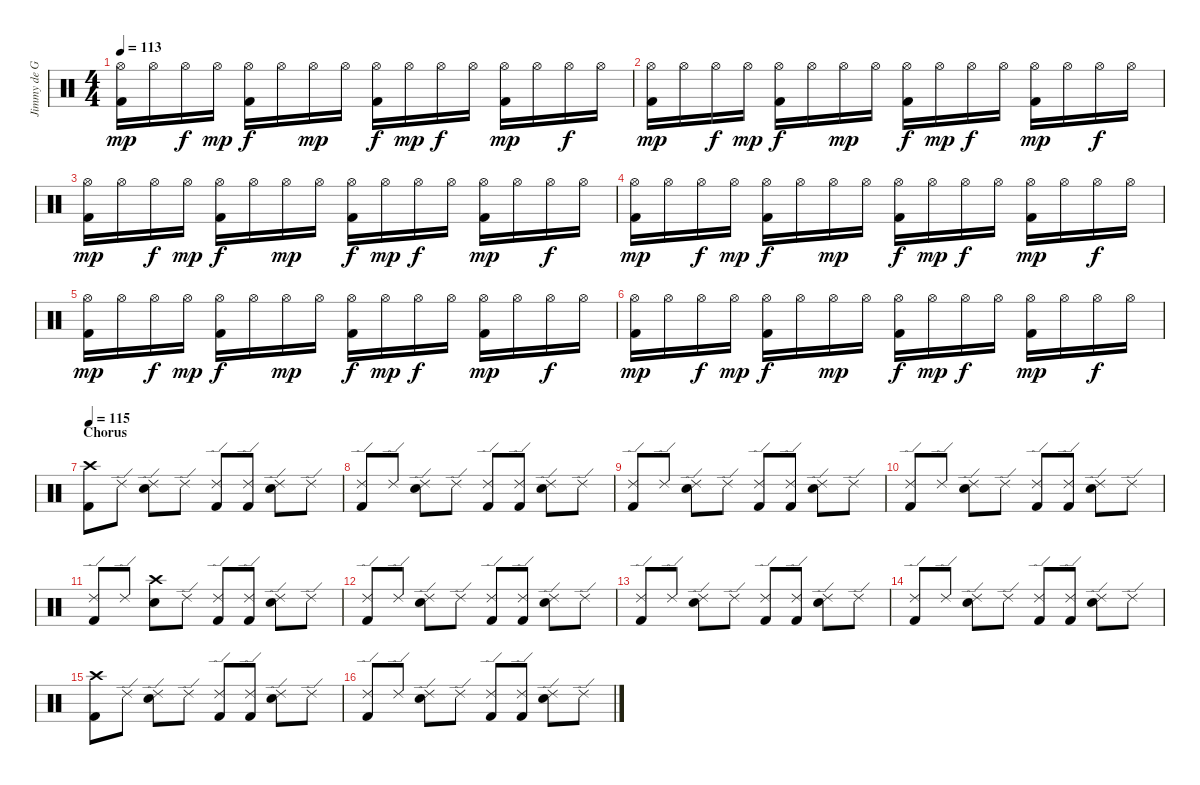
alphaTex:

\track ("Jimmy de Grasso" "Jimmy de G") {instrument percussion}
\staff {score}
\articulation defaults
\ts (4 4)
\tempo 113
\clef neutral
\ks c
("Hi-Hat (open)" "Kick (hit) 2").16{dy mp} "Hi-Hat (open)".16 "Hi-Hat (open)".16{dy f} "Hi-Hat (open)".16{dy mp} ("Hi-Hat (open)" "Kick (hit) 2").16{dy f} "Hi-Hat (open)".16 "Hi-Hat (open)".16{dy mp} "Hi-Hat (open)".16 ("Hi-Hat (open)" "Kick (hit) 2").16{dy f} "Hi-Hat (open)".16{dy mp} "Hi-Hat (open)".16{dy f} "Hi-Hat (open)".16 ("Hi-Hat (open)" "Kick (hit) 2").16{dy mp} "Hi-Hat (open)".16 "Hi-Hat (open)".16{dy f} "Hi-Hat (open)".16 |
("Hi-Hat (open)" "Kick (hit) 2").16{dy mp} "Hi-Hat (open)".16 "Hi-Hat (open)".16{dy f} "Hi-Hat (open)".16{dy mp} ("Hi-Hat (open)" "Kick (hit) 2").16{dy f} "Hi-Hat (open)".16 "Hi-Hat (open)".16{dy mp} "Hi-Hat (open)".16 ("Hi-Hat (open)" "Kick (hit) 2").16{dy f} "Hi-Hat (open)".16{dy mp} "Hi-Hat (open)".16{dy f} "Hi-Hat (open)".16 ("Hi-Hat (open)" "Kick (hit) 2").16{dy mp} "Hi-Hat (open)".16 "Hi-Hat (open)".16{dy f} "Hi-Hat (open)".16 |
("Hi-Hat (open)" "Kick (hit) 2").16{dy mp} "Hi-Hat (open)".16 "Hi-Hat (open)".16{dy f} "Hi-Hat (open)".16{dy mp} ("Hi-Hat (open)" "Kick (hit) 2").16{dy f} "Hi-Hat (open)".16 "Hi-Hat (open)".16{dy mp} "Hi-Hat (open)".16 ("Hi-Hat (open)" "Kick (hit) 2").16{dy f} "Hi-Hat (open)".16{dy mp} "Hi-Hat (open)".16{dy f} "Hi-Hat (open)".16 ("Hi-Hat (open)" "Kick (hit) 2").16{dy mp} "Hi-Hat (open)".16 "Hi-Hat (open)".16{dy f} "Hi-Hat (open)".16 |
("Hi-Hat (open)" "Kick (hit) 2").16{dy mp} "Hi-Hat (open)".16 "Hi-Hat (open)".16{dy f} "Hi-Hat (open)".16{dy mp} ("Hi-Hat (open)" "Kick (hit) 2").16{dy f} "Hi-Hat (open)".16 "Hi-Hat (open)".16{dy mp} "Hi-Hat (open)".16 ("Hi-Hat (open)" "Kick (hit) 2").16{dy f} "Hi-Hat (open)".16{dy mp} "Hi-Hat (open)".16{dy f} "Hi-Hat (open)".16 ("Hi-Hat (open)" "Kick (hit) 2").16{dy mp} "Hi-Hat (open)".16 "Hi-Hat (open)".16{dy f} "Hi-Hat (open)".16 |
("Hi-Hat (open)" "Kick (hit) 2").16{dy mp} "Hi-Hat (open)".16 "Hi-Hat (open)".16{dy f} "Hi-Hat (open)".16{dy mp} ("Hi-Hat (open)" "Kick (hit) 2").16{dy f} "Hi-Hat (open)".16 "Hi-Hat (open)".16{dy mp} "Hi-Hat (open)".16 ("Hi-Hat (open)" "Kick (hit) 2").16{dy f} "Hi-Hat (open)".16{dy mp} "Hi-Hat (open)".16{dy f} "Hi-Hat (open)".16 ("Hi-Hat (open)" "Kick (hit) 2").16{dy mp} "Hi-Hat (open)".16 "Hi-Hat (open)".16{dy f} "Hi-Hat (open)".16 |
("Hi-Hat (open)" "Kick (hit) 2").16{dy mp} "Hi-Hat (open)".16 "Hi-Hat (open)".16{dy f} "Hi-Hat (open)".16{dy mp} ("Hi-Hat (open)" "Kick (hit) 2").16{dy f} "Hi-Hat (open)".16 "Hi-Hat (open)".16{dy mp} "Hi-Hat (open)".16 ("Hi-Hat (open)" "Kick (hit) 2").16{dy f} "Hi-Hat (open)".16{dy mp} "Hi-Hat (open)".16{dy f} "Hi-Hat (open)".16 ("Hi-Hat (open)" "Kick (hit) 2").16{dy mp} "Hi-Hat (open)".16 "Hi-Hat (open)".16{dy f} "Hi-Hat (open)".16 |
\section ("" "Chorus")
\tempo 115
("Crash high (hit)" "Kick (hit) 2").8 "Ride (edge) 2".8 ("Ride (edge) 2" "Snare (hit) 2").8 "Ride (edge) 2".8 ("Ride (edge) 2" "Kick (hit) 2").8 ("Ride (edge) 2" "Kick (hit) 2").8 ("Ride (edge) 2" "Snare (hit) 2").8 "Ride (edge) 2".8 |
("Ride (edge) 2" "Kick (hit) 2").8 "Ride (edge) 2".8 ("Ride (edge) 2" "Snare (hit) 2").8 "Ride (edge) 2".8 ("Ride (edge) 2" "Kick (hit) 2").8 ("Ride (edge) 2" "Kick (hit) 2").8 ("Ride (edge) 2" "Snare (hit) 2").8 "Ride (edge) 2".8 |
("Ride (edge) 2" "Kick (hit) 2").8 "Ride (edge) 2".8 ("Ride (edge) 2" "Snare (hit) 2").8 "Ride (edge) 2".8 ("Ride (edge) 2" "Kick (hit) 2").8 ("Ride (edge) 2" "Kick (hit) 2").8 ("Ride (edge) 2" "Snare (hit) 2").8 "Ride (edge) 2".8 |
("Ride (edge) 2" "Kick (hit) 2").8 "Ride (edge) 2".8 ("Ride (edge) 2" "Snare (hit) 2").8 "Ride (edge) 2".8 ("Ride (edge) 2" "Kick (hit) 2").8 ("Ride (edge) 2" "Kick (hit) 2").8 ("Ride (edge) 2" "Snare (hit) 2").8 "Ride (edge) 2".8 |
("Ride (edge) 2" "Kick (hit) 2").8 "Ride (edge) 2".8 ("Crash high (hit)" "Snare (hit) 2").8 "Ride (edge) 2".8 ("Ride (edge) 2" "Kick (hit) 2").8 ("Ride (edge) 2" "Kick (hit) 2").8 ("Ride (edge) 2" "Snare (hit) 2").8 "Ride (edge) 2".8 |
("Ride (edge) 2" "Kick (hit) 2").8 "Ride (edge) 2".8 ("Ride (edge) 2" "Snare (hit) 2").8 "Ride (edge) 2".8 ("Ride (edge) 2" "Kick (hit) 2").8 ("Ride (edge) 2" "Kick (hit) 2").8 ("Ride (edge) 2" "Snare (hit) 2").8 "Ride (edge) 2".8 |
("Ride (edge) 2" "Kick (hit) 2").8 "Ride (edge) 2".8 ("Ride (edge) 2" "Snare (hit) 2").8 "Ride (edge) 2".8 ("Ride (edge) 2" "Kick (hit) 2").8 ("Ride (edge) 2" "Kick (hit) 2").8 ("Ride (edge) 2" "Snare (hit) 2").8 "Ride (edge) 2".8 |
("Ride (edge) 2" "Kick (hit) 2").8 "Ride (edge) 2".8 ("Ride (edge) 2" "Snare (hit) 2").8 "Ride (edge) 2".8 ("Ride (edge) 2" "Kick (hit) 2").8 ("Ride (edge) 2" "Kick (hit) 2").8 ("Ride (edge) 2" "Snare (hit) 2").8 "Ride (edge) 2".8 |
("Crash high (hit)" "Kick (hit) 2").8 "Ride (edge) 2".8 ("Ride (edge) 2" "Snare (hit) 2").8 "Ride (edge) 2".8 ("Ride (edge) 2" "Kick (hit) 2").8 ("Ride (edge) 2" "Kick (hit) 2").8 ("Ride (edge) 2" "Snare (hit) 2").8 "Ride (edge) 2".8 |
("Ride (edge) 2" "Kick (hit) 2").8 "Ride (edge) 2".8 ("Ride (edge) 2" "Snare (hit) 2").8 "Ride (edge) 2".8 ("Ride (edge) 2" "Kick (hit) 2").8 ("Ride (edge) 2" "Kick (hit) 2").8 ("Ride (edge) 2" "Snare (hit) 2").8 "Ride (edge) 2".8
